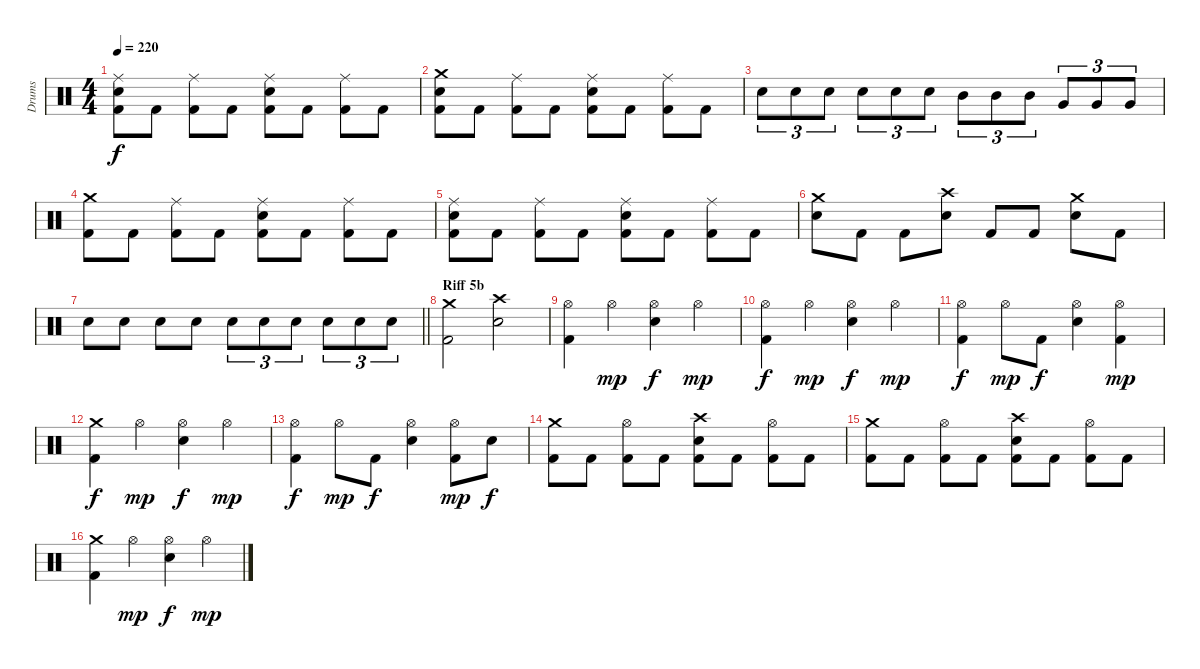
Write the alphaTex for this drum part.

\track ("Drums" "Drums") {instrument percussion}
\staff {score}
\articulation defaults
\ts (4 4)
\tempo 220
\clef neutral
\ks c
("Ride (middle)" "Electric Snare (hit)" "Kick (hit) 2").8{dy f} "Kick (hit) 2".8 ("Ride (middle)" "Kick (hit) 2").8 "Kick (hit) 2".8 ("Ride (middle)" "Electric Snare (hit)" "Kick (hit) 2").8 "Kick (hit) 2".8 ("Ride (middle)" "Kick (hit) 2").8 "Kick (hit) 2".8 |
("Crash medium (hit)" "Electric Snare (hit)" "Kick (hit) 2").8 "Kick (hit) 2".8 ("Ride (middle)" "Kick (hit) 2").8 "Kick (hit) 2".8 ("Ride (middle)" "Electric Snare (hit)" "Kick (hit) 2").8 "Kick (hit) 2".8 ("Ride (middle)" "Kick (hit) 2").8 "Kick (hit) 2".8 |
"Electric Snare (hit)".8{tu (3 2)} "Electric Snare (hit)".8{tu (3 2)} "Electric Snare (hit)".8{tu (3 2)} "Electric Snare (hit)".8{tu (3 2)} "Electric Snare (hit)".8{tu (3 2)} "Electric Snare (hit)".8{tu (3 2)} "Mid Tom (hit)".8{tu (3 2)} "Mid Tom (hit)".8{tu (3 2)} "Mid Tom (hit)".8{tu (3 2)} "Very Low Tom (hit)".8{tu (3 2)} "Very Low Tom (hit)".8{tu (3 2)} "Very Low Tom (hit)".8{tu (3 2)} |
("Crash medium (hit)" "Kick (hit) 2").8 "Kick (hit) 2".8 ("Ride (middle)" "Kick (hit) 2").8 "Kick (hit) 2".8 ("Ride (middle)" "Electric Snare (hit)" "Kick (hit) 2").8 "Kick (hit) 2".8 ("Ride (middle)" "Kick (hit) 2").8 "Kick (hit) 2".8 |
("Ride (middle)" "Electric Snare (hit)" "Kick (hit) 2").8 "Kick (hit) 2".8 ("Ride (middle)" "Kick (hit) 2").8 "Kick (hit) 2".8 ("Ride (middle)" "Electric Snare (hit)" "Kick (hit) 2").8 "Kick (hit) 2".8 ("Ride (middle)" "Kick (hit) 2").8 "Kick (hit) 2".8 |
("Electric Snare (hit)" "Crash medium (hit)").8 "Kick (hit) 2".8 "Kick (hit) 2".8 ("Electric Snare (hit)" "Crash high (hit)").8 "Kick (hit) 2".8 "Kick (hit) 2".8 ("Electric Snare (hit)" "Crash medium (hit)").8 "Kick (hit) 2".8 |
\barLineRight lightlight "Electric Snare (hit)".8 "Electric Snare (hit)".8 "Electric Snare (hit)".8 "Electric Snare (hit)".8 "Electric Snare (hit)".8{tu (3 2)} "Electric Snare (hit)".8{tu (3 2)} "Electric Snare (hit)".8{tu (3 2)} "Electric Snare (hit)".8{tu (3 2)} "Electric Snare (hit)".8{tu (3 2)} "Electric Snare (hit)".8{tu (3 2)}
|
\section ("" "Riff 5b")
("Crash medium (hit)" "Kick (hit) 2").2 ("Crash high (hit)" "Electric Snare (hit)").2 |
("Hi-Hat (open)" "Kick (hit) 2").4 "Hi-Hat (open)".4{dy mp} ("Hi-Hat (open)" "Electric Snare (hit)").4{dy f} "Hi-Hat (open)".4{dy mp} |
("Hi-Hat (open)" "Kick (hit) 2").4{dy f} "Hi-Hat (open)".4{dy mp} ("Hi-Hat (open)" "Electric Snare (hit)").4{dy f} "Hi-Hat (open)".4{dy mp} |
("Hi-Hat (open)" "Kick (hit) 2").4{dy f} "Hi-Hat (open)".8{dy mp} "Kick (hit) 2".8{dy f} ("Hi-Hat (open)" "Electric Snare (hit)").4 ("Hi-Hat (open)" "Kick (hit) 2").4{dy mp} |
("Crash medium (hit)" "Kick (hit) 2").4{dy f} "Hi-Hat (open)".4{dy mp} ("Hi-Hat (open)" "Electric Snare (hit)").4{dy f} "Hi-Hat (open)".4{dy mp} |
("Hi-Hat (open)" "Kick (hit) 2").4{dy f} "Hi-Hat (open)".8{dy mp} "Kick (hit) 2".8{dy f} ("Hi-Hat (open)" "Electric Snare (hit)").4 ("Hi-Hat (open)" "Kick (hit) 2").8{dy mp} "Electric Snare (hit)".8{dy f} |
("Kick (hit) 2" "Crash medium (hit)").8 "Kick (hit) 2".8 ("Kick (hit) 2" "Hi-Hat (open)").8 "Kick (hit) 2".8 ("Kick (hit) 2" "Crash high (hit)" "Electric Snare (hit)").8 "Kick (hit) 2".8 ("Kick (hit) 2" "Hi-Hat (open)").8 "Kick (hit) 2".8 |
("Kick (hit) 2" "Crash medium (hit)").8 "Kick (hit) 2".8 ("Kick (hit) 2" "Hi-Hat (open)").8 "Kick (hit) 2".8 ("Kick (hit) 2" "Crash high (hit)" "Electric Snare (hit)").8 "Kick (hit) 2".8 ("Kick (hit) 2" "Hi-Hat (open)").8 "Kick (hit) 2".8 |
("Crash medium (hit)" "Kick (hit) 2").4 "Hi-Hat (open)".4{dy mp} ("Hi-Hat (open)" "Electric Snare (hit)").4{dy f} "Hi-Hat (open)".4{dy mp}
